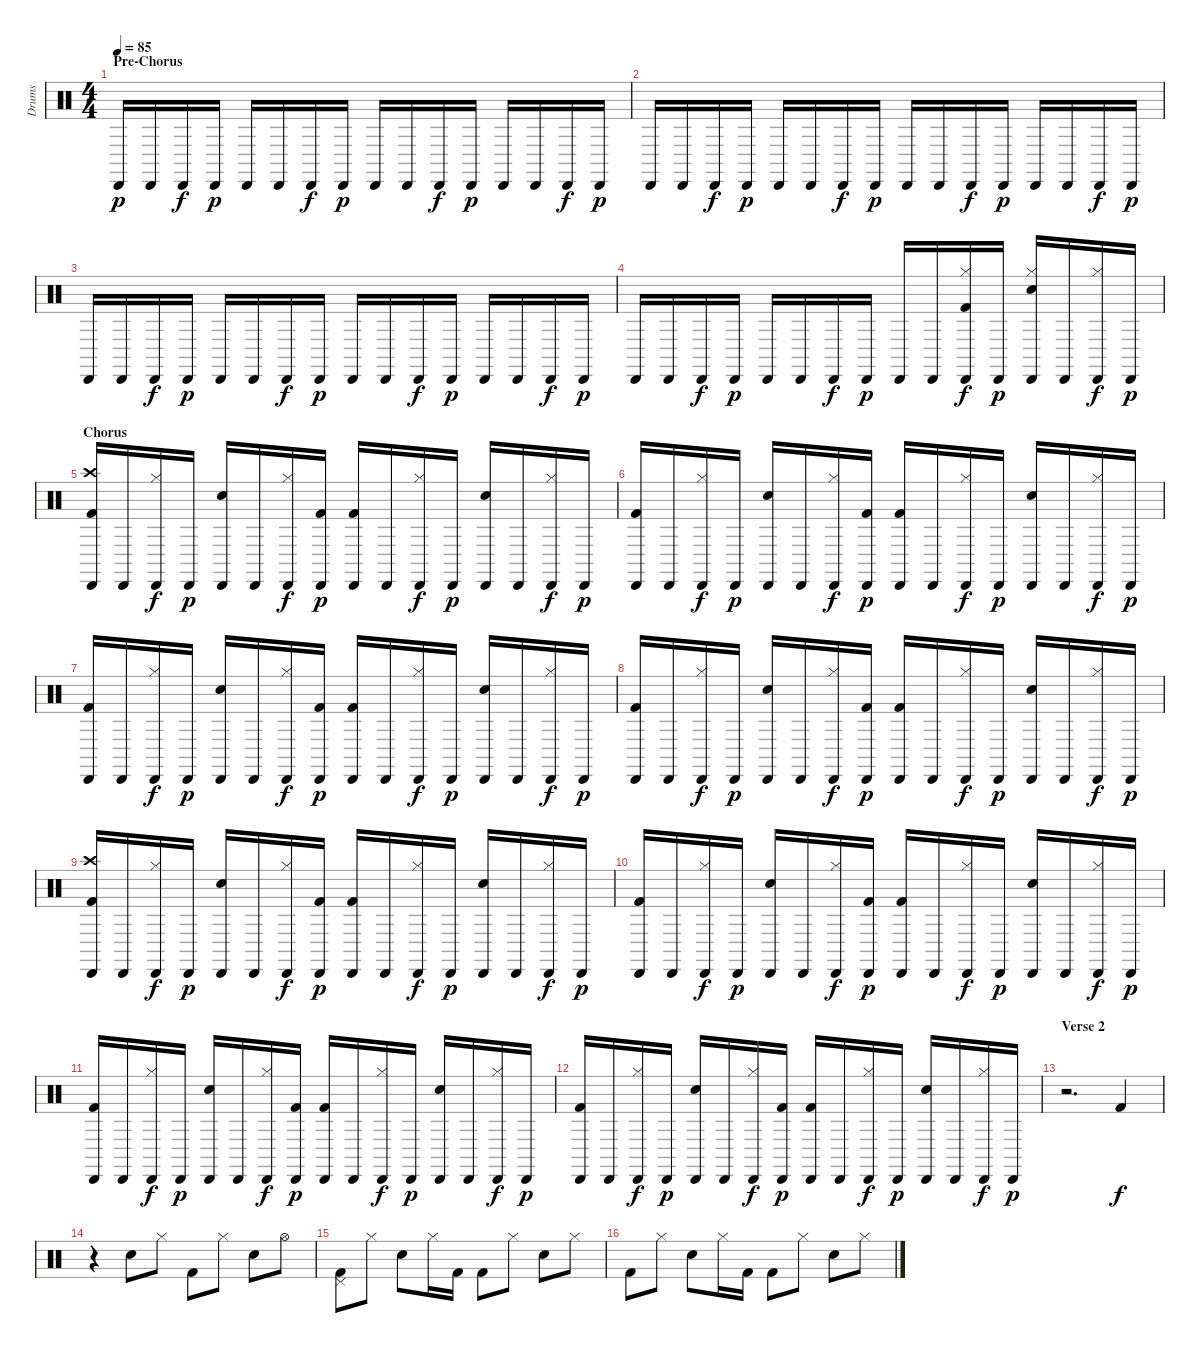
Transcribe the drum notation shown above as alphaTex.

\track ("Drums" "Drums") {instrument percussion}
\staff {score}
\articulation defaults
\ts (4 4)
\section ("" "Pre-Chorus")
\tempo 85
\clef neutral
\ks c "Cabasa (hit)".16{dy p} "Cabasa (hit)".16 "Cabasa (hit)".16{dy f} "Cabasa (hit)".16{dy p} "Cabasa (hit)".16 "Cabasa (hit)".16 "Cabasa (hit)".16{dy f} "Cabasa (hit)".16{dy p} "Cabasa (hit)".16 "Cabasa (hit)".16 "Cabasa (hit)".16{dy f} "Cabasa (hit)".16{dy p} "Cabasa (hit)".16 "Cabasa (hit)".16 "Cabasa (hit)".16{dy f} "Cabasa (hit)".16{dy p}
|
"Cabasa (hit)".16 "Cabasa (hit)".16 "Cabasa (hit)".16{dy f} "Cabasa (hit)".16{dy p} "Cabasa (hit)".16 "Cabasa (hit)".16 "Cabasa (hit)".16{dy f} "Cabasa (hit)".16{dy p} "Cabasa (hit)".16 "Cabasa (hit)".16 "Cabasa (hit)".16{dy f} "Cabasa (hit)".16{dy p} "Cabasa (hit)".16 "Cabasa (hit)".16 "Cabasa (hit)".16{dy f} "Cabasa (hit)".16{dy p} |
"Cabasa (hit)".16 "Cabasa (hit)".16 "Cabasa (hit)".16{dy f} "Cabasa (hit)".16{dy p} "Cabasa (hit)".16 "Cabasa (hit)".16 "Cabasa (hit)".16{dy f} "Cabasa (hit)".16{dy p} "Cabasa (hit)".16 "Cabasa (hit)".16 "Cabasa (hit)".16{dy f} "Cabasa (hit)".16{dy p} "Cabasa (hit)".16 "Cabasa (hit)".16 "Cabasa (hit)".16{dy f} "Cabasa (hit)".16{dy p} |
"Cabasa (hit)".16 "Cabasa (hit)".16 "Cabasa (hit)".16{dy f} "Cabasa (hit)".16{dy p} "Cabasa (hit)".16 "Cabasa (hit)".16 "Cabasa (hit)".16{dy f} "Cabasa (hit)".16{dy p} "Cabasa (hit)".16 "Cabasa (hit)".16 ("Cabasa (hit)" "Hi-Hat (closed)" "Kick (hit) 2").16{dy f} "Cabasa (hit)".16{dy p} ("Cabasa (hit)" "Hi-Hat (closed)" "Electric Snare (hit)").16 "Cabasa (hit)".16 ("Cabasa (hit)" "Hi-Hat (closed)").16{dy f} "Cabasa (hit)".16{dy p} |
\section ("" "Chorus")
("Cabasa (hit)" "Crash high (hit)" "Kick (hit) 2").16 "Cabasa (hit)".16 ("Cabasa (hit)" "Hi-Hat (closed)").16{dy f} "Cabasa (hit)".16{dy p} ("Cabasa (hit)" "Electric Snare (hit)").16 "Cabasa (hit)".16 ("Cabasa (hit)" "Hi-Hat (closed)").16{dy f} ("Cabasa (hit)" "Kick (hit) 2").16{dy p} ("Cabasa (hit)" "Kick (hit) 2").16 "Cabasa (hit)".16 ("Cabasa (hit)" "Hi-Hat (closed)").16{dy f} "Cabasa (hit)".16{dy p} ("Cabasa (hit)" "Electric Snare (hit)").16 "Cabasa (hit)".16 ("Cabasa (hit)" "Hi-Hat (closed)").16{dy f} "Cabasa (hit)".16{dy p} |
("Cabasa (hit)" "Kick (hit) 2").16 "Cabasa (hit)".16 ("Cabasa (hit)" "Hi-Hat (closed)").16{dy f} "Cabasa (hit)".16{dy p} ("Cabasa (hit)" "Electric Snare (hit)").16 "Cabasa (hit)".16 ("Cabasa (hit)" "Hi-Hat (closed)").16{dy f} ("Cabasa (hit)" "Kick (hit) 2").16{dy p} ("Cabasa (hit)" "Kick (hit) 2").16 "Cabasa (hit)".16 ("Cabasa (hit)" "Hi-Hat (closed)").16{dy f} "Cabasa (hit)".16{dy p} ("Cabasa (hit)" "Electric Snare (hit)").16 "Cabasa (hit)".16 ("Cabasa (hit)" "Hi-Hat (closed)").16{dy f} "Cabasa (hit)".16{dy p} |
("Cabasa (hit)" "Kick (hit) 2").16 "Cabasa (hit)".16 ("Cabasa (hit)" "Hi-Hat (closed)").16{dy f} "Cabasa (hit)".16{dy p} ("Cabasa (hit)" "Electric Snare (hit)").16 "Cabasa (hit)".16 ("Cabasa (hit)" "Hi-Hat (closed)").16{dy f} ("Cabasa (hit)" "Kick (hit) 2").16{dy p} ("Cabasa (hit)" "Kick (hit) 2").16 "Cabasa (hit)".16 ("Cabasa (hit)" "Hi-Hat (closed)").16{dy f} "Cabasa (hit)".16{dy p} ("Cabasa (hit)" "Electric Snare (hit)").16 "Cabasa (hit)".16 ("Cabasa (hit)" "Hi-Hat (closed)").16{dy f} "Cabasa (hit)".16{dy p} |
("Cabasa (hit)" "Kick (hit) 2").16 "Cabasa (hit)".16 ("Cabasa (hit)" "Hi-Hat (closed)").16{dy f} "Cabasa (hit)".16{dy p} ("Cabasa (hit)" "Electric Snare (hit)").16 "Cabasa (hit)".16 ("Cabasa (hit)" "Hi-Hat (closed)").16{dy f} ("Cabasa (hit)" "Kick (hit) 2").16{dy p} ("Cabasa (hit)" "Kick (hit) 2").16 "Cabasa (hit)".16 ("Cabasa (hit)" "Hi-Hat (closed)").16{dy f} "Cabasa (hit)".16{dy p} ("Cabasa (hit)" "Electric Snare (hit)").16 "Cabasa (hit)".16 ("Cabasa (hit)" "Hi-Hat (closed)").16{dy f} "Cabasa (hit)".16{dy p} |
("Cabasa (hit)" "Crash high (hit)" "Kick (hit) 2").16 "Cabasa (hit)".16 ("Cabasa (hit)" "Hi-Hat (closed)").16{dy f} "Cabasa (hit)".16{dy p} ("Cabasa (hit)" "Electric Snare (hit)").16 "Cabasa (hit)".16 ("Cabasa (hit)" "Hi-Hat (closed)").16{dy f} ("Cabasa (hit)" "Kick (hit) 2").16{dy p} ("Cabasa (hit)" "Kick (hit) 2").16 "Cabasa (hit)".16 ("Cabasa (hit)" "Hi-Hat (closed)").16{dy f} "Cabasa (hit)".16{dy p} ("Cabasa (hit)" "Electric Snare (hit)").16 "Cabasa (hit)".16 ("Cabasa (hit)" "Hi-Hat (closed)").16{dy f} "Cabasa (hit)".16{dy p} |
("Cabasa (hit)" "Kick (hit) 2").16 "Cabasa (hit)".16 ("Cabasa (hit)" "Hi-Hat (closed)").16{dy f} "Cabasa (hit)".16{dy p} ("Cabasa (hit)" "Electric Snare (hit)").16 "Cabasa (hit)".16 ("Cabasa (hit)" "Hi-Hat (closed)").16{dy f} ("Cabasa (hit)" "Kick (hit) 2").16{dy p} ("Cabasa (hit)" "Kick (hit) 2").16 "Cabasa (hit)".16 ("Cabasa (hit)" "Hi-Hat (closed)").16{dy f} "Cabasa (hit)".16{dy p} ("Cabasa (hit)" "Electric Snare (hit)").16 "Cabasa (hit)".16 ("Cabasa (hit)" "Hi-Hat (closed)").16{dy f} "Cabasa (hit)".16{dy p} |
("Cabasa (hit)" "Kick (hit) 2").16 "Cabasa (hit)".16 ("Cabasa (hit)" "Hi-Hat (closed)").16{dy f} "Cabasa (hit)".16{dy p} ("Cabasa (hit)" "Electric Snare (hit)").16 "Cabasa (hit)".16 ("Cabasa (hit)" "Hi-Hat (closed)").16{dy f} ("Cabasa (hit)" "Kick (hit) 2").16{dy p} ("Cabasa (hit)" "Kick (hit) 2").16 "Cabasa (hit)".16 ("Cabasa (hit)" "Hi-Hat (closed)").16{dy f} "Cabasa (hit)".16{dy p} ("Cabasa (hit)" "Electric Snare (hit)").16 "Cabasa (hit)".16 ("Cabasa (hit)" "Hi-Hat (closed)").16{dy f} "Cabasa (hit)".16{dy p} |
("Cabasa (hit)" "Kick (hit) 2").16 "Cabasa (hit)".16 ("Cabasa (hit)" "Hi-Hat (closed)").16{dy f} "Cabasa (hit)".16{dy p} ("Cabasa (hit)" "Electric Snare (hit)").16 "Cabasa (hit)".16 ("Cabasa (hit)" "Hi-Hat (closed)").16{dy f} ("Cabasa (hit)" "Kick (hit) 2").16{dy p} ("Cabasa (hit)" "Kick (hit) 2").16 "Cabasa (hit)".16 ("Cabasa (hit)" "Hi-Hat (closed)").16{dy f} "Cabasa (hit)".16{dy p} ("Cabasa (hit)" "Electric Snare (hit)").16 "Cabasa (hit)".16 ("Cabasa (hit)" "Hi-Hat (closed)").16{dy f} "Cabasa (hit)".16{dy p} |
\section ("" "Verse 2")
r.2{d} "Kick (hit) 2".4{dy f} |
r.4 "Electric Snare (hit)".8 "Hi-Hat (closed)".8 "Kick (hit) 2".8 "Hi-Hat (closed)".8 "Electric Snare (hit)".8 "Hi-Hat (open)".8 |
("Pedal Hi-Hat (hit)" "Kick (hit) 2").8 "Hi-Hat (closed)".8 "Electric Snare (hit)".8 "Hi-Hat (closed)".16 "Kick (hit) 2".16 "Kick (hit) 2".8 "Hi-Hat (closed)".8 "Electric Snare (hit)".8 "Hi-Hat (closed)".8 |
"Kick (hit) 2".8 "Hi-Hat (closed)".8 "Electric Snare (hit)".8 "Hi-Hat (closed)".16 "Kick (hit) 2".16 "Kick (hit) 2".8 "Hi-Hat (closed)".8 "Electric Snare (hit)".8 "Hi-Hat (closed)".8
